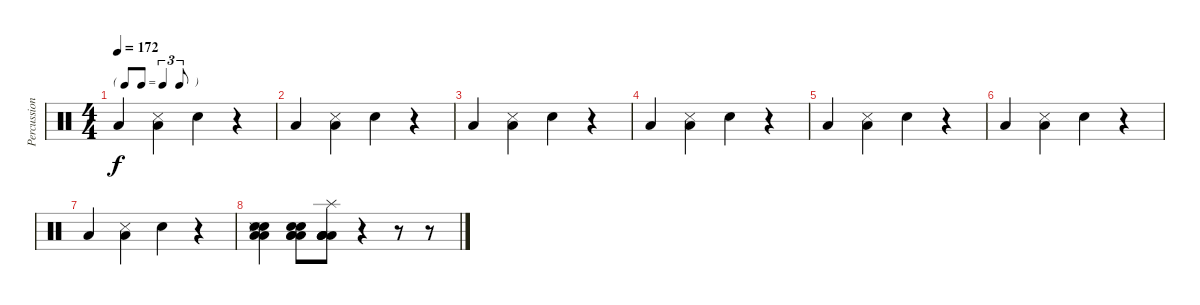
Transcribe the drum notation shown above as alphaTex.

\track ("Percussions" "Percussion") {instrument percussion}
\staff {score}
\articulation defaults
\ts (4 4)
\tf triplet8th
\tempo 172
\clef neutral
\ks c "Low Tom (hit)".4{dy f}
("Low Floor Tom (hit)" "Snare (side stick) 3").4 "Snare (hit) 2".4 r.4 |
"Low Floor Tom (hit)".4 ("Low Floor Tom (hit)" "Snare (side stick) 3").4 "Snare (hit) 2".4 r.4 |
"Low Tom (hit)".4 ("Low Floor Tom (hit)" "Snare (side stick) 3").4 "Snare (hit) 2".4 r.4 |
"Low Floor Tom (hit)".4 ("Low Floor Tom (hit)" "Snare (side stick) 3").4 "Snare (hit) 2".4 r.4 |
"Low Tom (hit)".4 ("Low Floor Tom (hit)" "Snare (side stick) 3").4 "Snare (hit) 2".4 r.4 |
"Low Floor Tom (hit)".4 ("Low Floor Tom (hit)" "Snare (side stick) 3").4 "Snare (hit) 2".4 r.4 |
"Low Tom (hit)".4 ("Low Floor Tom (hit)" "Snare (side stick) 3").4 "Snare (hit) 2".4 r.4 |
("Low Floor Tom (hit)" "Low Tom (hit)" "Snare (hit) 2" "Snare (side stick) 3" "Electric Snare (hit)").4 ("Snare (hit) 2" "Low Floor Tom (hit)" "Low Tom (hit)" "Snare (hit) 2" "Low Floor Tom (hit)").8 ("Low Tom (hit)" "Low Floor Tom (hit)" "Splash (hit)" "Low Tom (hit)" "Low Floor Tom (hit)").8 r.4 r.8 r.8
